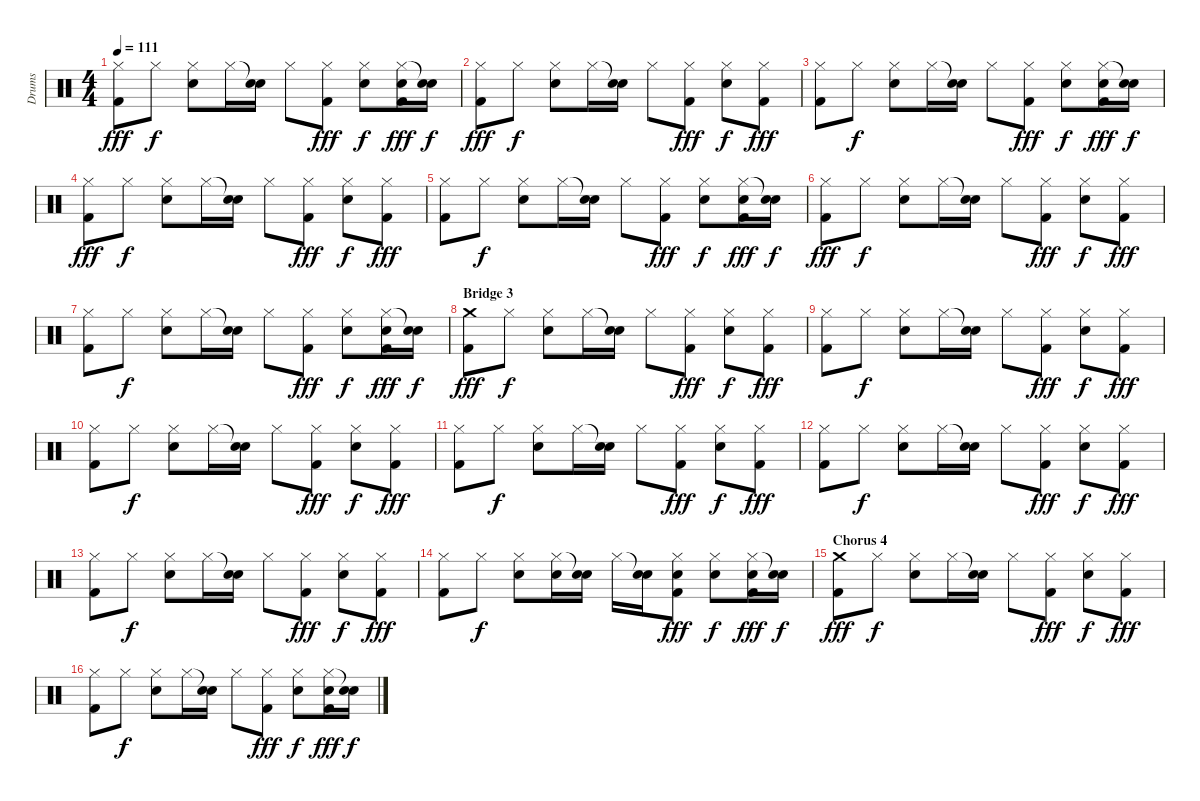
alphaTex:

\track ("Drums" "Drums") {instrument percussion}
\staff {score}
\articulation defaults
\ts (4 4)
\tempo 111
\clef neutral
\ks c
("Hi-Hat (closed)" "Kick (hit) 2").8{dy fff} "Hi-Hat (closed)".8{dy f} ("Hi-Hat (closed)" "Snare (hit) 2").8 "Hi-Hat (closed)".16 ("Snare (hit)"{t} "Snare (hit) 2").16 "Hi-Hat (closed)".8 ("Hi-Hat (closed)" "Kick (hit) 2").8{dy fff} ("Hi-Hat (closed)" "Snare (hit) 2").8{dy f} ("Hi-Hat (closed)" "Snare (hit) 2" "Kick (hit) 2").16{dy fff} ("Snare (hit)"{t} "Snare (hit) 2").16{dy f} |
("Hi-Hat (closed)" "Kick (hit) 2").8{dy fff} "Hi-Hat (closed)".8{dy f} ("Hi-Hat (closed)" "Snare (hit) 2").8 "Hi-Hat (closed)".16 ("Snare (hit)"{t} "Snare (hit) 2").16 "Hi-Hat (closed)".8 ("Hi-Hat (closed)" "Kick (hit) 2").8{dy fff} ("Hi-Hat (closed)" "Snare (hit) 2").8{dy f} ("Hi-Hat (closed)" "Kick (hit) 2").8{dy fff} |
("Hi-Hat (closed)" "Kick (hit) 2").8 "Hi-Hat (closed)".8{dy f} ("Hi-Hat (closed)" "Snare (hit) 2").8 "Hi-Hat (closed)".16 ("Snare (hit)"{t} "Snare (hit) 2").16 "Hi-Hat (closed)".8 ("Hi-Hat (closed)" "Kick (hit) 2").8{dy fff} ("Hi-Hat (closed)" "Snare (hit) 2").8{dy f} ("Hi-Hat (closed)" "Snare (hit) 2" "Kick (hit) 2").16{dy fff} ("Snare (hit)"{t} "Snare (hit) 2").16{dy f} |
("Hi-Hat (closed)" "Kick (hit) 2").8{dy fff} "Hi-Hat (closed)".8{dy f} ("Hi-Hat (closed)" "Snare (hit) 2").8 "Hi-Hat (closed)".16 ("Snare (hit)"{t} "Snare (hit) 2").16 "Hi-Hat (closed)".8 ("Hi-Hat (closed)" "Kick (hit) 2").8{dy fff} ("Hi-Hat (closed)" "Snare (hit) 2").8{dy f} ("Hi-Hat (closed)" "Kick (hit) 2").8{dy fff} |
("Hi-Hat (closed)" "Kick (hit) 2").8 "Hi-Hat (closed)".8{dy f} ("Hi-Hat (closed)" "Snare (hit) 2").8 "Hi-Hat (closed)".16 ("Snare (hit)"{t} "Snare (hit) 2").16 "Hi-Hat (closed)".8 ("Hi-Hat (closed)" "Kick (hit) 2").8{dy fff} ("Hi-Hat (closed)" "Snare (hit) 2").8{dy f} ("Hi-Hat (closed)" "Snare (hit) 2" "Kick (hit) 2").16{dy fff} ("Snare (hit)"{t} "Snare (hit) 2").16{dy f} |
("Hi-Hat (closed)" "Kick (hit) 2").8{dy fff} "Hi-Hat (closed)".8{dy f} ("Hi-Hat (closed)" "Snare (hit) 2").8 "Hi-Hat (closed)".16 ("Snare (hit)"{t} "Snare (hit) 2").16 "Hi-Hat (closed)".8 ("Hi-Hat (closed)" "Kick (hit) 2").8{dy fff} ("Hi-Hat (closed)" "Snare (hit) 2").8{dy f} ("Hi-Hat (closed)" "Kick (hit) 2").8{dy fff} |
("Hi-Hat (closed)" "Kick (hit) 2").8 "Hi-Hat (closed)".8{dy f} ("Hi-Hat (closed)" "Snare (hit) 2").8 "Hi-Hat (closed)".16 ("Snare (hit)"{t} "Snare (hit) 2").16 "Hi-Hat (closed)".8 ("Hi-Hat (closed)" "Kick (hit) 2").8{dy fff} ("Hi-Hat (closed)" "Snare (hit) 2").8{dy f} ("Hi-Hat (closed)" "Snare (hit) 2" "Kick (hit) 2").16{dy fff} ("Snare (hit)"{t} "Snare (hit) 2").16{dy f} |
\section ("" "Bridge 3")
("Crash medium (hit)" "Kick (hit) 2").8{dy fff} "Hi-Hat (closed)".8{dy f} ("Hi-Hat (closed)" "Snare (hit) 2").8 "Hi-Hat (closed)".16 ("Snare (hit)"{t} "Snare (hit) 2").16 "Hi-Hat (closed)".8 ("Hi-Hat (closed)" "Kick (hit) 2").8{dy fff} ("Hi-Hat (closed)" "Snare (hit) 2").8{dy f} ("Hi-Hat (closed)" "Kick (hit) 2").8{dy fff} |
("Hi-Hat (closed)" "Kick (hit) 2").8 "Hi-Hat (closed)".8{dy f} ("Hi-Hat (closed)" "Snare (hit) 2").8 "Hi-Hat (closed)".16 ("Snare (hit)"{t} "Snare (hit) 2").16 "Hi-Hat (closed)".8 ("Hi-Hat (closed)" "Kick (hit) 2").8{dy fff} ("Hi-Hat (closed)" "Snare (hit) 2").8{dy f} ("Hi-Hat (closed)" "Kick (hit) 2").8{dy fff} |
("Hi-Hat (closed)" "Kick (hit) 2").8 "Hi-Hat (closed)".8{dy f} ("Hi-Hat (closed)" "Snare (hit) 2").8 "Hi-Hat (closed)".16 ("Snare (hit)"{t} "Snare (hit) 2").16 "Hi-Hat (closed)".8 ("Hi-Hat (closed)" "Kick (hit) 2").8{dy fff} ("Hi-Hat (closed)" "Snare (hit) 2").8{dy f} ("Hi-Hat (closed)" "Kick (hit) 2").8{dy fff} |
("Hi-Hat (closed)" "Kick (hit) 2").8 "Hi-Hat (closed)".8{dy f} ("Hi-Hat (closed)" "Snare (hit) 2").8 "Hi-Hat (closed)".16 ("Snare (hit)"{t} "Snare (hit) 2").16 "Hi-Hat (closed)".8 ("Hi-Hat (closed)" "Kick (hit) 2").8{dy fff} ("Hi-Hat (closed)" "Snare (hit) 2").8{dy f} ("Hi-Hat (closed)" "Kick (hit) 2").8{dy fff} |
("Hi-Hat (closed)" "Kick (hit) 2").8 "Hi-Hat (closed)".8{dy f} ("Hi-Hat (closed)" "Snare (hit) 2").8 "Hi-Hat (closed)".16 ("Snare (hit)"{t} "Snare (hit) 2").16 "Hi-Hat (closed)".8 ("Hi-Hat (closed)" "Kick (hit) 2").8{dy fff} ("Hi-Hat (closed)" "Snare (hit) 2").8{dy f} ("Hi-Hat (closed)" "Kick (hit) 2").8{dy fff} |
("Hi-Hat (closed)" "Kick (hit) 2").8 "Hi-Hat (closed)".8{dy f} ("Hi-Hat (closed)" "Snare (hit) 2").8 "Hi-Hat (closed)".16 ("Snare (hit)"{t} "Snare (hit) 2").16 "Hi-Hat (closed)".8 ("Hi-Hat (closed)" "Kick (hit) 2").8{dy fff} ("Hi-Hat (closed)" "Snare (hit) 2").8{dy f} ("Hi-Hat (closed)" "Kick (hit) 2").8{dy fff} |
("Hi-Hat (closed)" "Kick (hit) 2").8 "Hi-Hat (closed)".8{dy f} ("Hi-Hat (closed)" "Snare (hit) 2").8 ("Hi-Hat (closed)" "Snare (hit) 2").16 ("Snare (hit)"{t} "Snare (hit) 2").16 "Hi-Hat (closed)".16 ("Snare (hit)"{t} "Snare (hit) 2").16 ("Hi-Hat (closed)" "Snare (hit) 2" "Kick (hit) 2").8{dy fff} ("Hi-Hat (closed)" "Snare (hit) 2").8{dy f} ("Hi-Hat (closed)" "Snare (hit) 2" "Kick (hit) 2").16{dy fff} ("Snare (hit)"{t} "Snare (hit) 2").16{dy f} |
\section ("" "Chorus 4")
("Crash medium (hit)" "Kick (hit) 2").8{dy fff} "Hi-Hat (closed)".8{dy f} ("Hi-Hat (closed)" "Snare (hit) 2").8 "Hi-Hat (closed)".16 ("Snare (hit)"{t} "Snare (hit) 2").16 "Hi-Hat (closed)".8 ("Hi-Hat (closed)" "Kick (hit) 2").8{dy fff} ("Hi-Hat (closed)" "Snare (hit) 2").8{dy f} ("Hi-Hat (closed)" "Kick (hit) 2").8{dy fff} |
("Hi-Hat (closed)" "Kick (hit) 2").8 "Hi-Hat (closed)".8{dy f} ("Hi-Hat (closed)" "Snare (hit) 2").8 "Hi-Hat (closed)".16 ("Snare (hit)"{t} "Snare (hit) 2").16 "Hi-Hat (closed)".8 ("Hi-Hat (closed)" "Kick (hit) 2").8{dy fff} ("Hi-Hat (closed)" "Snare (hit) 2").8{dy f} ("Hi-Hat (closed)" "Snare (hit) 2" "Kick (hit) 2").16{dy fff} ("Snare (hit)"{t} "Snare (hit) 2").16{dy f}
